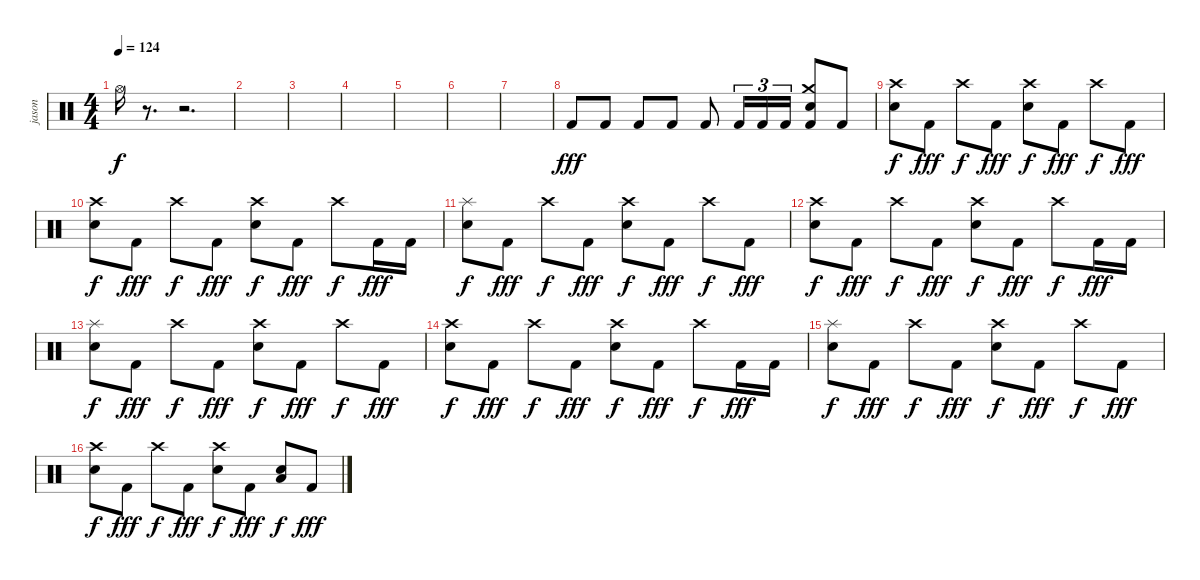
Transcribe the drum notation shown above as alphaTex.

\track ("jason" "jason") {solo instrument percussion}
\staff {score}
\articulation defaults
\ts (4 4)
\tempo 124
\clef neutral
\ks c "Hi-Hat (open)".16{dy f}
r.8{d} r.2{d} |
|
|
|
|
|
|
"Kick (hit) 2".8{dy fff} "Kick (hit) 2".8 "Kick (hit) 2".8 "Kick (hit) 2".8 "Kick (hit) 2".8 "Kick (hit) 2".16{tu (3 2)} "Kick (hit) 2".16{tu (3 2)} "Kick (hit) 2".16{tu (3 2)} ("Crash medium (hit)" "Snare (hit) 2" "Kick (hit) 2").8 "Kick (hit) 2".8 |
("Crash high (hit)" "Snare (hit) 2").8{dy f} "Kick (hit) 2".8{dy fff} "Crash high (hit)".8{dy f} "Kick (hit) 2".8{dy fff} ("Crash high (hit)" "Snare (hit) 2").8{dy f} "Kick (hit) 2".8{dy fff} "Crash high (hit)".8{dy f} "Kick (hit) 2".8{dy fff} |
("Crash high (hit)" "Snare (hit) 2").8{dy f} "Kick (hit) 2".8{dy fff} "Crash high (hit)".8{dy f} "Kick (hit) 2".8{dy fff} ("Crash high (hit)" "Snare (hit) 2").8{dy f} "Kick (hit) 2".8{dy fff} "Crash high (hit)".8{dy f} "Kick (hit) 2".16{dy fff} "Kick (hit) 2".16 |
("Splash (hit)" "Snare (hit) 2").8{dy f} "Kick (hit) 2".8{dy fff} "Crash high (hit)".8{dy f} "Kick (hit) 2".8{dy fff} ("Crash high (hit)" "Snare (hit) 2").8{dy f} "Kick (hit) 2".8{dy fff} "Crash high (hit)".8{dy f} "Kick (hit) 2".8{dy fff} |
("Crash high (hit)" "Snare (hit) 2").8{dy f} "Kick (hit) 2".8{dy fff} "Crash high (hit)".8{dy f} "Kick (hit) 2".8{dy fff} ("Crash high (hit)" "Snare (hit) 2").8{dy f} "Kick (hit) 2".8{dy fff} "Crash high (hit)".8{dy f} "Kick (hit) 2".16{dy fff} "Kick (hit) 2".16 |
("Splash (hit)" "Snare (hit) 2").8{dy f} "Kick (hit) 2".8{dy fff} "Crash high (hit)".8{dy f} "Kick (hit) 2".8{dy fff} ("Crash high (hit)" "Snare (hit) 2").8{dy f} "Kick (hit) 2".8{dy fff} "Crash high (hit)".8{dy f} "Kick (hit) 2".8{dy fff} |
("Crash high (hit)" "Snare (hit) 2").8{dy f} "Kick (hit) 2".8{dy fff} "Crash high (hit)".8{dy f} "Kick (hit) 2".8{dy fff} ("Crash high (hit)" "Snare (hit) 2").8{dy f} "Kick (hit) 2".8{dy fff} "Crash high (hit)".8{dy f} "Kick (hit) 2".16{dy fff} "Kick (hit) 2".16 |
("Splash (hit)" "Snare (hit) 2").8{dy f} "Kick (hit) 2".8{dy fff} "Crash high (hit)".8{dy f} "Kick (hit) 2".8{dy fff} ("Crash high (hit)" "Snare (hit) 2").8{dy f} "Kick (hit) 2".8{dy fff} "Crash high (hit)".8{dy f} "Kick (hit) 2".8{dy fff} |
("Crash high (hit)" "Snare (hit) 2").8{dy f} "Kick (hit) 2".8{dy fff} "Crash high (hit)".8{dy f} "Kick (hit) 2".8{dy fff} ("Crash high (hit)" "Snare (hit) 2").8{dy f} "Kick (hit) 2".8{dy fff} ("Low Floor Tom (hit)" "Snare (hit) 2").8{dy f} "Kick (hit) 2".8{dy fff}
